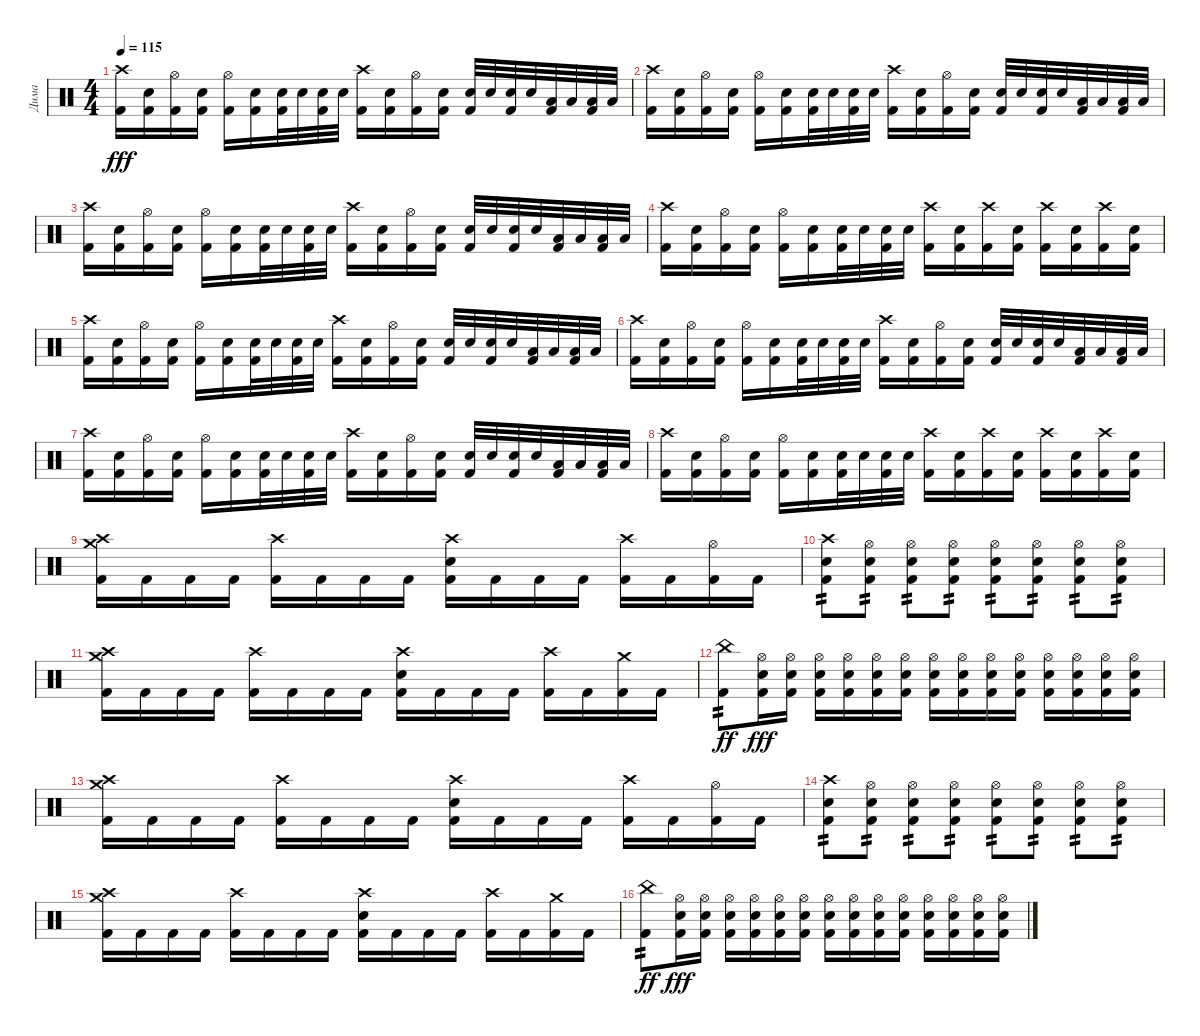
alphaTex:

\track ("Дима " "Дима ") {instrument percussion}
\staff {score}
\articulation defaults
\ts (4 4)
\tempo 115
\clef neutral
\ks c
("Crash high (hit)" "Kick (hit) 2").16{dy fff} ("Snare (hit) 2" "Kick (hit) 2").16 ("Hi-Hat (open)" "Kick (hit) 2").16 ("Snare (hit) 2" "Kick (hit) 2").16 ("Hi-Hat (open)" "Kick (hit) 2").16 ("Snare (hit) 2" "Kick (hit) 2").16 ("Snare (hit) 2" "Kick (hit) 2").32 "Snare (hit) 2".32 ("Snare (hit) 2" "Kick (hit) 2").32 "Snare (hit) 2".32 ("Crash high (hit)" "Kick (hit) 2").16 ("Snare (hit) 2" "Kick (hit) 2").16 ("Hi-Hat (open)" "Kick (hit) 2").16 ("Snare (hit) 2" "Kick (hit) 2").16 ("Snare (hit) 2" "Kick (hit) 2").32 "Snare (hit) 2".32 ("Snare (hit) 2" "Kick (hit) 2").32 "Snare (hit) 2".32 ("Low Tom (hit)" "Kick (hit) 2").32 "Low Tom (hit)".32 ("Low Tom (hit)" "Kick (hit) 2").32 "Low Tom (hit)".32 |
("Crash high (hit)" "Kick (hit) 2").16 ("Snare (hit) 2" "Kick (hit) 2").16 ("Hi-Hat (open)" "Kick (hit) 2").16 ("Snare (hit) 2" "Kick (hit) 2").16 ("Hi-Hat (open)" "Kick (hit) 2").16 ("Snare (hit) 2" "Kick (hit) 2").16 ("Snare (hit) 2" "Kick (hit) 2").32 "Snare (hit) 2".32 ("Snare (hit) 2" "Kick (hit) 2").32 "Snare (hit) 2".32 ("Crash high (hit)" "Kick (hit) 2").16 ("Snare (hit) 2" "Kick (hit) 2").16 ("Hi-Hat (open)" "Kick (hit) 2").16 ("Snare (hit) 2" "Kick (hit) 2").16 ("Snare (hit) 2" "Kick (hit) 2").32 "Snare (hit) 2".32 ("Snare (hit) 2" "Kick (hit) 2").32 "Snare (hit) 2".32 ("Low Tom (hit)" "Kick (hit) 2").32 "Low Tom (hit)".32 ("Low Tom (hit)" "Kick (hit) 2").32 "Low Tom (hit)".32 |
("Crash high (hit)" "Kick (hit) 2").16 ("Snare (hit) 2" "Kick (hit) 2").16 ("Hi-Hat (open)" "Kick (hit) 2").16 ("Snare (hit) 2" "Kick (hit) 2").16 ("Hi-Hat (open)" "Kick (hit) 2").16 ("Snare (hit) 2" "Kick (hit) 2").16 ("Snare (hit) 2" "Kick (hit) 2").32 "Snare (hit) 2".32 ("Snare (hit) 2" "Kick (hit) 2").32 "Snare (hit) 2".32 ("Crash high (hit)" "Kick (hit) 2").16 ("Snare (hit) 2" "Kick (hit) 2").16 ("Hi-Hat (open)" "Kick (hit) 2").16 ("Snare (hit) 2" "Kick (hit) 2").16 ("Snare (hit) 2" "Kick (hit) 2").32 "Snare (hit) 2".32 ("Snare (hit) 2" "Kick (hit) 2").32 "Snare (hit) 2".32 ("Low Tom (hit)" "Kick (hit) 2").32 "Low Tom (hit)".32 ("Low Tom (hit)" "Kick (hit) 2").32 "Low Tom (hit)".32 |
("Crash high (hit)" "Kick (hit) 2").16 ("Snare (hit) 2" "Kick (hit) 2").16 ("Hi-Hat (open)" "Kick (hit) 2").16 ("Snare (hit) 2" "Kick (hit) 2").16 ("Hi-Hat (open)" "Kick (hit) 2").16 ("Snare (hit) 2" "Kick (hit) 2").16 ("Snare (hit) 2" "Kick (hit) 2").32 "Snare (hit) 2".32 ("Snare (hit) 2" "Kick (hit) 2").32 "Snare (hit) 2".32 ("Crash high (hit)" "Kick (hit) 2").16 ("Snare (hit) 2" "Kick (hit) 2").16 ("Crash high (hit)" "Kick (hit) 2").16 ("Snare (hit) 2" "Kick (hit) 2").16 ("Crash high (hit)" "Kick (hit) 2").16 ("Snare (hit) 2" "Kick (hit) 2").16 ("Crash high (hit)" "Kick (hit) 2").16 ("Snare (hit) 2" "Kick (hit) 2").16 |
("Crash high (hit)" "Kick (hit) 2").16 ("Snare (hit) 2" "Kick (hit) 2").16 ("Hi-Hat (open)" "Kick (hit) 2").16 ("Snare (hit) 2" "Kick (hit) 2").16 ("Hi-Hat (open)" "Kick (hit) 2").16 ("Snare (hit) 2" "Kick (hit) 2").16 ("Snare (hit) 2" "Kick (hit) 2").32 "Snare (hit) 2".32 ("Snare (hit) 2" "Kick (hit) 2").32 "Snare (hit) 2".32 ("Crash high (hit)" "Kick (hit) 2").16 ("Snare (hit) 2" "Kick (hit) 2").16 ("Hi-Hat (open)" "Kick (hit) 2").16 ("Snare (hit) 2" "Kick (hit) 2").16 ("Snare (hit) 2" "Kick (hit) 2").32 "Snare (hit) 2".32 ("Snare (hit) 2" "Kick (hit) 2").32 "Snare (hit) 2".32 ("Low Tom (hit)" "Kick (hit) 2").32 "Low Tom (hit)".32 ("Low Tom (hit)" "Kick (hit) 2").32 "Low Tom (hit)".32 |
("Crash high (hit)" "Kick (hit) 2").16 ("Snare (hit) 2" "Kick (hit) 2").16 ("Hi-Hat (open)" "Kick (hit) 2").16 ("Snare (hit) 2" "Kick (hit) 2").16 ("Hi-Hat (open)" "Kick (hit) 2").16 ("Snare (hit) 2" "Kick (hit) 2").16 ("Snare (hit) 2" "Kick (hit) 2").32 "Snare (hit) 2".32 ("Snare (hit) 2" "Kick (hit) 2").32 "Snare (hit) 2".32 ("Crash high (hit)" "Kick (hit) 2").16 ("Snare (hit) 2" "Kick (hit) 2").16 ("Hi-Hat (open)" "Kick (hit) 2").16 ("Snare (hit) 2" "Kick (hit) 2").16 ("Snare (hit) 2" "Kick (hit) 2").32 "Snare (hit) 2".32 ("Snare (hit) 2" "Kick (hit) 2").32 "Snare (hit) 2".32 ("Low Tom (hit)" "Kick (hit) 2").32 "Low Tom (hit)".32 ("Low Tom (hit)" "Kick (hit) 2").32 "Low Tom (hit)".32 |
("Crash high (hit)" "Kick (hit) 2").16 ("Snare (hit) 2" "Kick (hit) 2").16 ("Hi-Hat (open)" "Kick (hit) 2").16 ("Snare (hit) 2" "Kick (hit) 2").16 ("Hi-Hat (open)" "Kick (hit) 2").16 ("Snare (hit) 2" "Kick (hit) 2").16 ("Snare (hit) 2" "Kick (hit) 2").32 "Snare (hit) 2".32 ("Snare (hit) 2" "Kick (hit) 2").32 "Snare (hit) 2".32 ("Crash high (hit)" "Kick (hit) 2").16 ("Snare (hit) 2" "Kick (hit) 2").16 ("Hi-Hat (open)" "Kick (hit) 2").16 ("Snare (hit) 2" "Kick (hit) 2").16 ("Snare (hit) 2" "Kick (hit) 2").32 "Snare (hit) 2".32 ("Snare (hit) 2" "Kick (hit) 2").32 "Snare (hit) 2".32 ("Low Tom (hit)" "Kick (hit) 2").32 "Low Tom (hit)".32 ("Low Tom (hit)" "Kick (hit) 2").32 "Low Tom (hit)".32 |
("Crash high (hit)" "Kick (hit) 2").16 ("Snare (hit) 2" "Kick (hit) 2").16 ("Hi-Hat (open)" "Kick (hit) 2").16 ("Snare (hit) 2" "Kick (hit) 2").16 ("Hi-Hat (open)" "Kick (hit) 2").16 ("Snare (hit) 2" "Kick (hit) 2").16 ("Snare (hit) 2" "Kick (hit) 2").32 "Snare (hit) 2".32 ("Snare (hit) 2" "Kick (hit) 2").32 "Snare (hit) 2".32 ("Crash high (hit)" "Kick (hit) 2").16 ("Snare (hit) 2" "Kick (hit) 2").16 ("Crash high (hit)" "Kick (hit) 2").16 ("Snare (hit) 2" "Kick (hit) 2").16 ("Crash high (hit)" "Kick (hit) 2").16 ("Snare (hit) 2" "Kick (hit) 2").16 ("Crash high (hit)" "Kick (hit) 2").16 ("Snare (hit) 2" "Kick (hit) 2").16 |
("Crash high (hit)" "Crash medium (hit)" "Kick (hit) 2").16 "Kick (hit) 2".16 "Kick (hit) 2".16 "Kick (hit) 2".16 ("Crash high (hit)" "Kick (hit) 2").16 "Kick (hit) 2".16 "Kick (hit) 2".16 "Kick (hit) 2".16 ("Crash high (hit)" "Snare (hit) 2" "Kick (hit) 2").16 "Kick (hit) 2".16 "Kick (hit) 2".16 "Kick (hit) 2".16 ("Crash high (hit)" "Kick (hit) 2").16 "Kick (hit) 2".16 ("Hi-Hat (open)" "Kick (hit) 2").16 "Kick (hit) 2".16 |
("Crash high (hit)" "Snare (hit) 2" "Kick (hit) 2").8{tp 2} ("Hi-Hat (open)" "Snare (hit) 2" "Kick (hit) 2").8{tp 2} ("Hi-Hat (open)" "Snare (hit) 2" "Kick (hit) 2").8{tp 2} ("Hi-Hat (open)" "Snare (hit) 2" "Kick (hit) 2").8{tp 2} ("Hi-Hat (open)" "Snare (hit) 2" "Kick (hit) 2").8{tp 2} ("Hi-Hat (open)" "Snare (hit) 2" "Kick (hit) 2").8{tp 2} ("Hi-Hat (open)" "Snare (hit) 2" "Kick (hit) 2").8{tp 2} ("Hi-Hat (open)" "Snare (hit) 2" "Kick (hit) 2").8{tp 2} |
("Crash high (hit)" "Crash medium (hit)" "Kick (hit) 2").16 "Kick (hit) 2".16 "Kick (hit) 2".16 "Kick (hit) 2".16 ("Crash high (hit)" "Kick (hit) 2").16 "Kick (hit) 2".16 "Kick (hit) 2".16 "Kick (hit) 2".16 ("Crash high (hit)" "Snare (hit) 2" "Kick (hit) 2").16 "Kick (hit) 2".16 "Kick (hit) 2".16 "Kick (hit) 2".16 ("Crash high (hit)" "Kick (hit) 2").16 "Kick (hit) 2".16 ("Crash medium (hit)" "Kick (hit) 2").16 "Kick (hit) 2".16 |
("China (hit)" "Kick (hit) 2").8{tp 2 dy ff} ("Hi-Hat (open)" "Snare (hit) 2" "Kick (hit) 2").16{dy fff} ("Hi-Hat (open)" "Snare (hit) 2" "Kick (hit) 2").16 ("Hi-Hat (open)" "Snare (hit) 2" "Kick (hit) 2").16 ("Hi-Hat (open)" "Snare (hit) 2" "Kick (hit) 2").16 ("Hi-Hat (open)" "Snare (hit) 2" "Kick (hit) 2").16 ("Hi-Hat (open)" "Snare (hit) 2" "Kick (hit) 2").16 ("Hi-Hat (open)" "Snare (hit) 2" "Kick (hit) 2").16 ("Hi-Hat (open)" "Snare (hit) 2" "Kick (hit) 2").16 ("Hi-Hat (open)" "Snare (hit) 2" "Kick (hit) 2").16 ("Hi-Hat (open)" "Snare (hit) 2" "Kick (hit) 2").16 ("Hi-Hat (open)" "Snare (hit) 2" "Kick (hit) 2").16 ("Hi-Hat (open)" "Snare (hit) 2" "Kick (hit) 2").16 ("Hi-Hat (open)" "Snare (hit) 2" "Kick (hit) 2").16 ("Hi-Hat (open)" "Snare (hit) 2" "Kick (hit) 2").16 |
("Crash high (hit)" "Crash medium (hit)" "Kick (hit) 2").16 "Kick (hit) 2".16 "Kick (hit) 2".16 "Kick (hit) 2".16 ("Crash high (hit)" "Kick (hit) 2").16 "Kick (hit) 2".16 "Kick (hit) 2".16 "Kick (hit) 2".16 ("Crash high (hit)" "Snare (hit) 2" "Kick (hit) 2").16 "Kick (hit) 2".16 "Kick (hit) 2".16 "Kick (hit) 2".16 ("Crash high (hit)" "Kick (hit) 2").16 "Kick (hit) 2".16 ("Hi-Hat (open)" "Kick (hit) 2").16 "Kick (hit) 2".16 |
("Crash high (hit)" "Snare (hit) 2" "Kick (hit) 2").8{tp 2} ("Hi-Hat (open)" "Snare (hit) 2" "Kick (hit) 2").8{tp 2} ("Hi-Hat (open)" "Snare (hit) 2" "Kick (hit) 2").8{tp 2} ("Hi-Hat (open)" "Snare (hit) 2" "Kick (hit) 2").8{tp 2} ("Hi-Hat (open)" "Snare (hit) 2" "Kick (hit) 2").8{tp 2} ("Hi-Hat (open)" "Snare (hit) 2" "Kick (hit) 2").8{tp 2} ("Hi-Hat (open)" "Snare (hit) 2" "Kick (hit) 2").8{tp 2} ("Hi-Hat (open)" "Snare (hit) 2" "Kick (hit) 2").8{tp 2} |
("Crash high (hit)" "Crash medium (hit)" "Kick (hit) 2").16 "Kick (hit) 2".16 "Kick (hit) 2".16 "Kick (hit) 2".16 ("Crash high (hit)" "Kick (hit) 2").16 "Kick (hit) 2".16 "Kick (hit) 2".16 "Kick (hit) 2".16 ("Crash high (hit)" "Snare (hit) 2" "Kick (hit) 2").16 "Kick (hit) 2".16 "Kick (hit) 2".16 "Kick (hit) 2".16 ("Crash high (hit)" "Kick (hit) 2").16 "Kick (hit) 2".16 ("Crash medium (hit)" "Kick (hit) 2").16 "Kick (hit) 2".16 |
("China (hit)" "Kick (hit) 2").8{tp 2 dy ff} ("Hi-Hat (open)" "Snare (hit) 2" "Kick (hit) 2").16{dy fff} ("Hi-Hat (open)" "Snare (hit) 2" "Kick (hit) 2").16 ("Hi-Hat (open)" "Snare (hit) 2" "Kick (hit) 2").16 ("Hi-Hat (open)" "Snare (hit) 2" "Kick (hit) 2").16 ("Hi-Hat (open)" "Snare (hit) 2" "Kick (hit) 2").16 ("Hi-Hat (open)" "Snare (hit) 2" "Kick (hit) 2").16 ("Hi-Hat (open)" "Snare (hit) 2" "Kick (hit) 2").16 ("Hi-Hat (open)" "Snare (hit) 2" "Kick (hit) 2").16 ("Hi-Hat (open)" "Snare (hit) 2" "Kick (hit) 2").16 ("Hi-Hat (open)" "Snare (hit) 2" "Kick (hit) 2").16 ("Hi-Hat (open)" "Snare (hit) 2" "Kick (hit) 2").16 ("Hi-Hat (open)" "Snare (hit) 2" "Kick (hit) 2").16 ("Hi-Hat (open)" "Snare (hit) 2" "Kick (hit) 2").16 ("Hi-Hat (open)" "Snare (hit) 2" "Kick (hit) 2").16
